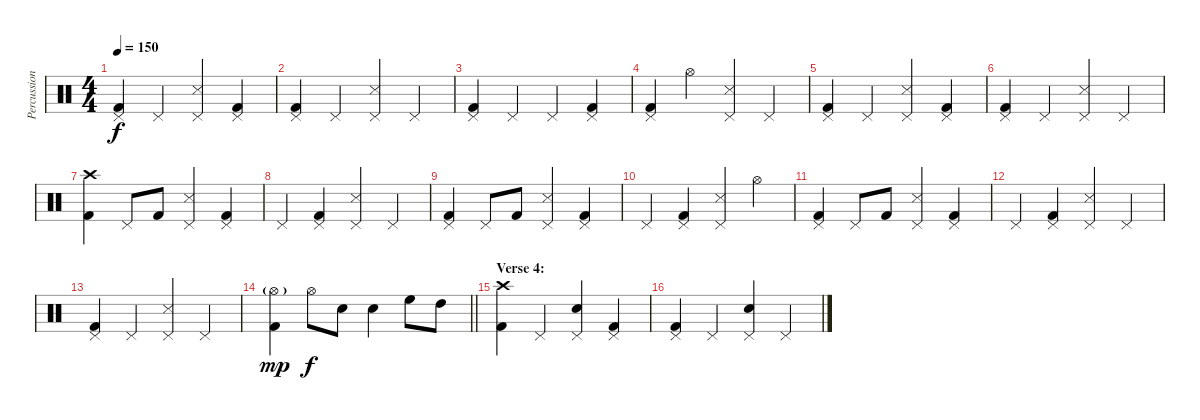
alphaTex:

\track ("Percussion" "Percussion") {instrument percussion}
\staff {score}
\articulation defaults
\ts (4 4)
\tempo 150
\clef neutral
\ks c
("Pedal Hi-Hat (hit)" "Kick (hit) 2").4{dy f} "Pedal Hi-Hat (hit)".4 ("Pedal Hi-Hat (hit)" "Snare (side stick) 3").4 ("Pedal Hi-Hat (hit)" "Kick (hit) 2").4 |
("Pedal Hi-Hat (hit)" "Kick (hit) 2").4 "Pedal Hi-Hat (hit)".4 ("Pedal Hi-Hat (hit)" "Snare (side stick) 3").4 "Pedal Hi-Hat (hit)".4 |
("Pedal Hi-Hat (hit)" "Kick (hit) 2").4 "Pedal Hi-Hat (hit)".4 "Pedal Hi-Hat (hit)".4 ("Pedal Hi-Hat (hit)" "Kick (hit) 2").4 |
("Pedal Hi-Hat (hit)" "Kick (hit) 2").4 "Hi-Hat (open)".4 ("Pedal Hi-Hat (hit)" "Snare (side stick) 3").4 "Pedal Hi-Hat (hit)".4 |
("Pedal Hi-Hat (hit)" "Kick (hit) 2").4 "Pedal Hi-Hat (hit)".4 ("Pedal Hi-Hat (hit)" "Snare (side stick) 3").4 ("Pedal Hi-Hat (hit)" "Kick (hit) 2").4 |
("Pedal Hi-Hat (hit)" "Kick (hit) 2").4 "Pedal Hi-Hat (hit)".4 ("Pedal Hi-Hat (hit)" "Snare (side stick) 3").4 "Pedal Hi-Hat (hit)".4 |
("Crash high (hit)" "Kick (hit) 2").4 "Pedal Hi-Hat (hit)".8 "Kick (hit) 2".8 ("Pedal Hi-Hat (hit)" "Snare (side stick) 3").4 ("Pedal Hi-Hat (hit)" "Kick (hit) 2").4 |
"Pedal Hi-Hat (hit)".4 ("Pedal Hi-Hat (hit)" "Kick (hit) 2").4 ("Pedal Hi-Hat (hit)" "Snare (side stick) 3").4 "Pedal Hi-Hat (hit)".4 |
("Pedal Hi-Hat (hit)" "Kick (hit) 2").4 "Pedal Hi-Hat (hit)".8 "Kick (hit) 2".8 ("Pedal Hi-Hat (hit)" "Snare (side stick) 3").4 ("Pedal Hi-Hat (hit)" "Kick (hit) 2").4 |
"Pedal Hi-Hat (hit)".4 ("Pedal Hi-Hat (hit)" "Kick (hit) 2").4 ("Pedal Hi-Hat (hit)" "Snare (side stick) 3").4 "Hi-Hat (open)".4 |
("Pedal Hi-Hat (hit)" "Kick (hit) 2").4 "Pedal Hi-Hat (hit)".8 "Kick (hit) 2".8 ("Pedal Hi-Hat (hit)" "Snare (side stick) 3").4 ("Pedal Hi-Hat (hit)" "Kick (hit) 2").4 |
"Pedal Hi-Hat (hit)".4 ("Pedal Hi-Hat (hit)" "Kick (hit) 2").4 ("Pedal Hi-Hat (hit)" "Snare (side stick) 3").4 "Pedal Hi-Hat (hit)".4 |
("Pedal Hi-Hat (hit)" "Kick (hit) 2").4 "Pedal Hi-Hat (hit)".4 ("Pedal Hi-Hat (hit)" "Snare (side stick) 3").4 "Pedal Hi-Hat (hit)".4 |
\barLineRight lightlight
("Hi-Hat (open)"{g} "Kick (hit) 2").4{dy mp} "Hi-Hat (open)".8{dy f} "Electric Snare (hit)".8 "Electric Snare (hit)".4 "High Floor Tom (hit)".8 "High Tom (hit)".8 |
\section ("" "Verse 4:")
("Crash high (hit)" "Kick (hit) 2").4 "Pedal Hi-Hat (hit)".4 ("Pedal Hi-Hat (hit)" "Electric Snare (hit)").4 ("Pedal Hi-Hat (hit)" "Kick (hit) 2").4 |
("Pedal Hi-Hat (hit)" "Kick (hit) 2").4 "Pedal Hi-Hat (hit)".4 ("Pedal Hi-Hat (hit)" "Electric Snare (hit)").4 "Pedal Hi-Hat (hit)".4
